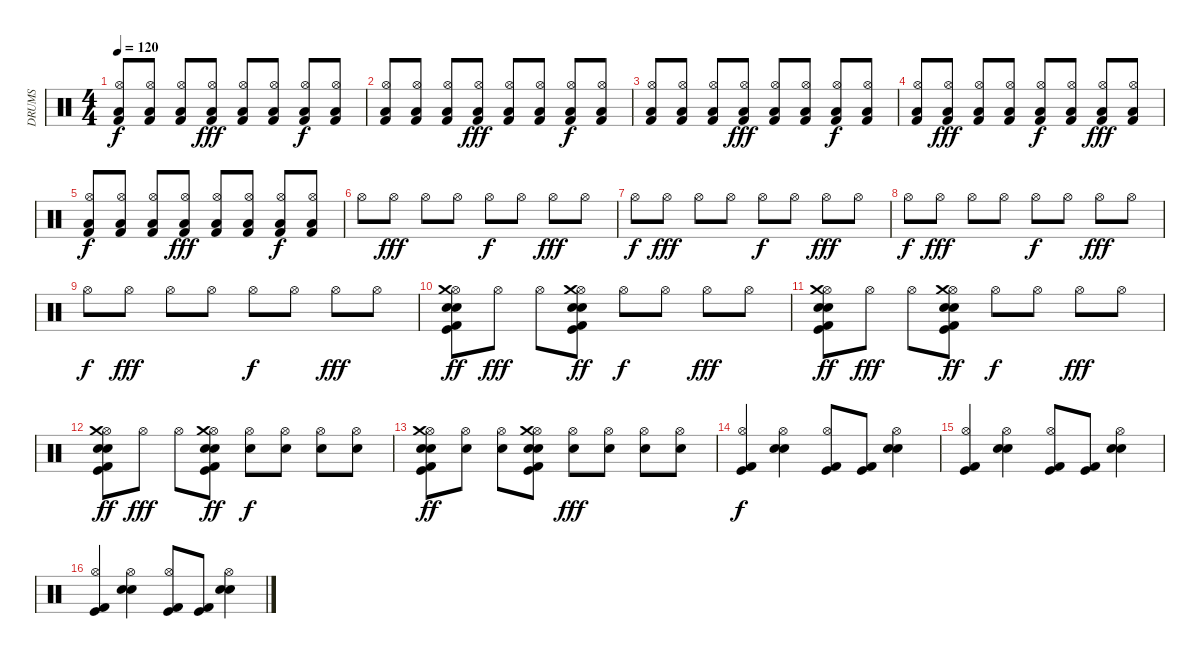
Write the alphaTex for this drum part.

\track ("DRUMS" "DRUMS") {instrument percussion}
\staff {score}
\articulation defaults
\ts (4 4)
\tempo 120
\clef neutral
\ks c
("Kick (hit) 2" "Hi-Hat (open)" "Low Tom (hit)").8{dy f} ("Kick (hit) 2" "Hi-Hat (open)" "Low Tom (hit)").8 ("Kick (hit) 2" "Hi-Hat (open)" "Low Tom (hit)").8 ("Kick (hit) 2" "Hi-Hat (open)" "Low Tom (hit)").8{dy fff} ("Kick (hit) 2" "Hi-Hat (open)" "Low Tom (hit)").8 ("Kick (hit) 2" "Hi-Hat (open)" "Low Tom (hit)").8 ("Kick (hit) 2" "Hi-Hat (open)" "Low Tom (hit)").8{dy f} ("Kick (hit) 2" "Hi-Hat (open)" "Low Tom (hit)").8 |
("Kick (hit) 2" "Hi-Hat (open)" "Low Tom (hit)").8 ("Kick (hit) 2" "Hi-Hat (open)" "Low Tom (hit)").8 ("Kick (hit) 2" "Hi-Hat (open)" "Low Tom (hit)").8 ("Kick (hit) 2" "Hi-Hat (open)" "Low Tom (hit)").8{dy fff} ("Kick (hit) 2" "Hi-Hat (open)" "Low Tom (hit)").8 ("Kick (hit) 2" "Hi-Hat (open)" "Low Tom (hit)").8 ("Kick (hit) 2" "Hi-Hat (open)" "Low Tom (hit)").8{dy f} ("Kick (hit) 2" "Hi-Hat (open)" "Low Tom (hit)").8 |
("Kick (hit) 2" "Hi-Hat (open)" "Low Tom (hit)").8 ("Kick (hit) 2" "Hi-Hat (open)" "Low Tom (hit)").8 ("Kick (hit) 2" "Hi-Hat (open)" "Low Tom (hit)").8 ("Kick (hit) 2" "Hi-Hat (open)" "Low Tom (hit)").8{dy fff} ("Kick (hit) 2" "Hi-Hat (open)" "Low Tom (hit)").8 ("Kick (hit) 2" "Hi-Hat (open)" "Low Tom (hit)").8 ("Kick (hit) 2" "Hi-Hat (open)" "Low Tom (hit)").8{dy f} ("Kick (hit) 2" "Hi-Hat (open)" "Low Tom (hit)").8 |
("Kick (hit) 2" "Hi-Hat (open)" "Low Tom (hit)").8 ("Kick (hit) 2" "Hi-Hat (open)" "Low Tom (hit)").8{dy fff} ("Kick (hit) 2" "Hi-Hat (open)" "Low Tom (hit)").8 ("Kick (hit) 2" "Hi-Hat (open)" "Low Tom (hit)").8 ("Kick (hit) 2" "Hi-Hat (open)" "Low Tom (hit)").8{dy f} ("Kick (hit) 2" "Hi-Hat (open)" "Low Tom (hit)").8 ("Kick (hit) 2" "Hi-Hat (open)" "Low Tom (hit)").8{dy fff} ("Kick (hit) 2" "Hi-Hat (open)" "Low Tom (hit)").8 |
("Kick (hit) 2" "Hi-Hat (open)" "Low Tom (hit)").8{dy f} ("Kick (hit) 2" "Hi-Hat (open)" "Low Tom (hit)").8 ("Kick (hit) 2" "Hi-Hat (open)" "Low Tom (hit)").8 ("Kick (hit) 2" "Hi-Hat (open)" "Low Tom (hit)").8{dy fff} ("Kick (hit) 2" "Hi-Hat (open)" "Low Tom (hit)").8 ("Kick (hit) 2" "Hi-Hat (open)" "Low Tom (hit)").8 ("Kick (hit) 2" "Hi-Hat (open)" "Low Tom (hit)").8{dy f} ("Kick (hit) 2" "Hi-Hat (open)" "Low Tom (hit)").8 |
"Hi-Hat (open)".8 "Hi-Hat (open)".8{dy fff} "Hi-Hat (open)".8 "Hi-Hat (open)".8 "Hi-Hat (open)".8{dy f} "Hi-Hat (open)".8 "Hi-Hat (open)".8{dy fff} "Hi-Hat (open)".8 |
"Hi-Hat (open)".8{dy f} "Hi-Hat (open)".8{dy fff} "Hi-Hat (open)".8 "Hi-Hat (open)".8 "Hi-Hat (open)".8{dy f} "Hi-Hat (open)".8 "Hi-Hat (open)".8{dy fff} "Hi-Hat (open)".8 |
"Hi-Hat (open)".8{dy f} "Hi-Hat (open)".8{dy fff} "Hi-Hat (open)".8 "Hi-Hat (open)".8 "Hi-Hat (open)".8{dy f} "Hi-Hat (open)".8 "Hi-Hat (open)".8{dy fff} "Hi-Hat (open)".8 |
"Hi-Hat (open)".8{dy f} "Hi-Hat (open)".8{dy fff} "Hi-Hat (open)".8 "Hi-Hat (open)".8 "Hi-Hat (open)".8{dy f} "Hi-Hat (open)".8 "Hi-Hat (open)".8{dy fff} "Hi-Hat (open)".8 |
("Kick (hit)" "Kick (hit) 2" "Electric Snare (hit)" "Snare (hit) 2" "Hi-Hat (open)" "Crash medium (hit)").8{dy ff} "Hi-Hat (open)".8{dy fff} "Hi-Hat (open)".8 ("Kick (hit)" "Kick (hit) 2" "Electric Snare (hit)" "Snare (hit) 2" "Hi-Hat (open)" "Crash medium (hit)").8{dy ff} "Hi-Hat (open)".8{dy f} "Hi-Hat (open)".8 "Hi-Hat (open)".8{dy fff} "Hi-Hat (open)".8 |
("Kick (hit)" "Kick (hit) 2" "Electric Snare (hit)" "Snare (hit) 2" "Hi-Hat (open)" "Crash medium (hit)").8{dy ff} "Hi-Hat (open)".8{dy fff} "Hi-Hat (open)".8 ("Kick (hit)" "Kick (hit) 2" "Electric Snare (hit)" "Snare (hit) 2" "Hi-Hat (open)" "Crash medium (hit)").8{dy ff} "Hi-Hat (open)".8{dy f} "Hi-Hat (open)".8 "Hi-Hat (open)".8{dy fff} "Hi-Hat (open)".8 |
("Kick (hit)" "Kick (hit) 2" "Electric Snare (hit)" "Snare (hit) 2" "Hi-Hat (open)" "Crash medium (hit)").8{dy ff} "Hi-Hat (open)".8{dy fff} "Hi-Hat (open)".8 ("Kick (hit)" "Kick (hit) 2" "Electric Snare (hit)" "Snare (hit) 2" "Hi-Hat (open)" "Crash medium (hit)").8{dy ff} ("Electric Snare (hit)" "Hi-Hat (open)").8{dy f} ("Electric Snare (hit)" "Hi-Hat (open)").8 ("Electric Snare (hit)" "Hi-Hat (open)").8 ("Electric Snare (hit)" "Hi-Hat (open)").8 |
("Kick (hit)" "Kick (hit) 2" "Electric Snare (hit)" "Snare (hit) 2" "Hi-Hat (open)" "Crash medium (hit)").8{dy ff} ("Electric Snare (hit)" "Hi-Hat (open)").8 ("Electric Snare (hit)" "Hi-Hat (open)").8 ("Kick (hit)" "Kick (hit) 2" "Electric Snare (hit)" "Snare (hit) 2" "Hi-Hat (open)" "Crash medium (hit)").8 ("Electric Snare (hit)" "Hi-Hat (open)").8{dy fff} ("Electric Snare (hit)" "Hi-Hat (open)").8 ("Electric Snare (hit)" "Hi-Hat (open)").8 ("Electric Snare (hit)" "Hi-Hat (open)").8 |
("Kick (hit)" "Kick (hit) 2" "Hi-Hat (open)").4{dy f} ("Snare (hit) 2" "Electric Snare (hit)" "Hi-Hat (open)").4 ("Kick (hit)" "Kick (hit) 2" "Hi-Hat (open)").8 ("Kick (hit)" "Kick (hit) 2").8 ("Snare (hit) 2" "Electric Snare (hit)" "Hi-Hat (open)").4 |
("Kick (hit)" "Kick (hit) 2" "Hi-Hat (open)").4 ("Snare (hit) 2" "Electric Snare (hit)" "Hi-Hat (open)").4 ("Kick (hit)" "Kick (hit) 2" "Hi-Hat (open)").8 ("Kick (hit)" "Kick (hit) 2").8 ("Snare (hit) 2" "Electric Snare (hit)" "Hi-Hat (open)").4 |
("Kick (hit)" "Kick (hit) 2" "Hi-Hat (open)").4 ("Snare (hit) 2" "Electric Snare (hit)" "Hi-Hat (open)").4 ("Kick (hit)" "Kick (hit) 2" "Hi-Hat (open)").8 ("Kick (hit)" "Kick (hit) 2").8 ("Snare (hit) 2" "Electric Snare (hit)" "Hi-Hat (open)").4
